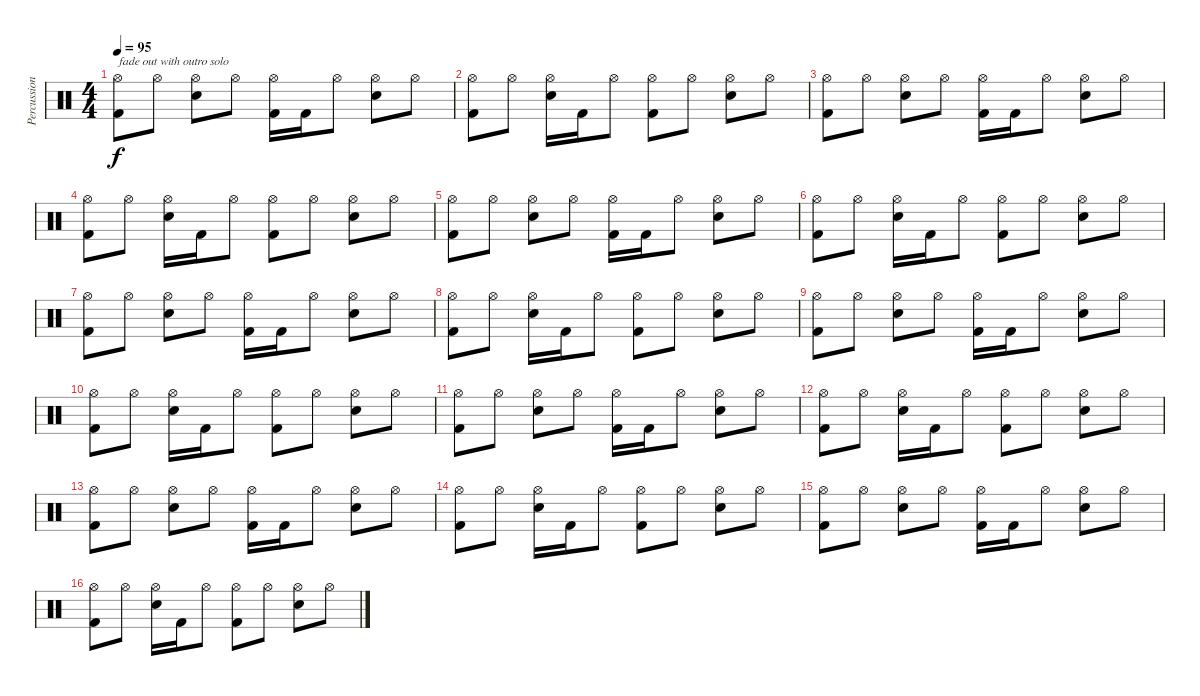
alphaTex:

\track ("Percussion" "Percussion") {instrument percussion}
\staff {score}
\articulation defaults
\ts (4 4)
\tempo 95
\clef neutral
\ks c
("Hi-Hat (open)" "Kick (hit) 2").8{txt "fade out with outro solo" dy f volume 12} "Hi-Hat (open)".8 ("Hi-Hat (open)" "Snare (hit) 2").8 "Hi-Hat (open)".8 ("Hi-Hat (open)" "Kick (hit) 2").16 "Kick (hit) 2".16 "Hi-Hat (open)".8 ("Hi-Hat (open)" "Snare (hit) 2").8 "Hi-Hat (open)".8 |
("Hi-Hat (open)" "Kick (hit) 2").8 "Hi-Hat (open)".8 ("Hi-Hat (open)" "Snare (hit) 2").16 "Kick (hit) 2".16 "Hi-Hat (open)".8 ("Hi-Hat (open)" "Kick (hit) 2").8 "Hi-Hat (open)".8 ("Hi-Hat (open)" "Snare (hit) 2").8 "Hi-Hat (open)".8 |
("Hi-Hat (open)" "Kick (hit) 2").8{volume 9} "Hi-Hat (open)".8 ("Hi-Hat (open)" "Snare (hit) 2").8 "Hi-Hat (open)".8 ("Hi-Hat (open)" "Kick (hit) 2").16 "Kick (hit) 2".16 "Hi-Hat (open)".8 ("Hi-Hat (open)" "Snare (hit) 2").8 "Hi-Hat (open)".8 |
("Hi-Hat (open)" "Kick (hit) 2").8 "Hi-Hat (open)".8 ("Hi-Hat (open)" "Snare (hit) 2").16 "Kick (hit) 2".16 "Hi-Hat (open)".8 ("Hi-Hat (open)" "Kick (hit) 2").8 "Hi-Hat (open)".8 ("Hi-Hat (open)" "Snare (hit) 2").8 "Hi-Hat (open)".8 |
("Hi-Hat (open)" "Kick (hit) 2").8{volume 7} "Hi-Hat (open)".8 ("Hi-Hat (open)" "Snare (hit) 2").8 "Hi-Hat (open)".8 ("Hi-Hat (open)" "Kick (hit) 2").16 "Kick (hit) 2".16 "Hi-Hat (open)".8 ("Hi-Hat (open)" "Snare (hit) 2").8 "Hi-Hat (open)".8 |
("Hi-Hat (open)" "Kick (hit) 2").8 "Hi-Hat (open)".8 ("Hi-Hat (open)" "Snare (hit) 2").16 "Kick (hit) 2".16 "Hi-Hat (open)".8 ("Hi-Hat (open)" "Kick (hit) 2").8 "Hi-Hat (open)".8 ("Hi-Hat (open)" "Snare (hit) 2").8 "Hi-Hat (open)".8 |
("Hi-Hat (open)" "Kick (hit) 2").8{volume 7} "Hi-Hat (open)".8 ("Hi-Hat (open)" "Snare (hit) 2").8 "Hi-Hat (open)".8 ("Hi-Hat (open)" "Kick (hit) 2").16 "Kick (hit) 2".16 "Hi-Hat (open)".8 ("Hi-Hat (open)" "Snare (hit) 2").8 "Hi-Hat (open)".8 |
("Hi-Hat (open)" "Kick (hit) 2").8 "Hi-Hat (open)".8 ("Hi-Hat (open)" "Snare (hit) 2").16 "Kick (hit) 2".16 "Hi-Hat (open)".8 ("Hi-Hat (open)" "Kick (hit) 2").8 "Hi-Hat (open)".8 ("Hi-Hat (open)" "Snare (hit) 2").8 "Hi-Hat (open)".8 |
("Hi-Hat (open)" "Kick (hit) 2").8{volume 5} "Hi-Hat (open)".8 ("Hi-Hat (open)" "Snare (hit) 2").8 "Hi-Hat (open)".8 ("Hi-Hat (open)" "Kick (hit) 2").16 "Kick (hit) 2".16 "Hi-Hat (open)".8 ("Hi-Hat (open)" "Snare (hit) 2").8 "Hi-Hat (open)".8 |
("Hi-Hat (open)" "Kick (hit) 2").8 "Hi-Hat (open)".8 ("Hi-Hat (open)" "Snare (hit) 2").16 "Kick (hit) 2".16 "Hi-Hat (open)".8 ("Hi-Hat (open)" "Kick (hit) 2").8 "Hi-Hat (open)".8 ("Hi-Hat (open)" "Snare (hit) 2").8 "Hi-Hat (open)".8 |
("Hi-Hat (open)" "Kick (hit) 2").8{volume 3} "Hi-Hat (open)".8 ("Hi-Hat (open)" "Snare (hit) 2").8 "Hi-Hat (open)".8 ("Hi-Hat (open)" "Kick (hit) 2").16 "Kick (hit) 2".16 "Hi-Hat (open)".8 ("Hi-Hat (open)" "Snare (hit) 2").8 "Hi-Hat (open)".8 |
("Hi-Hat (open)" "Kick (hit) 2").8 "Hi-Hat (open)".8 ("Hi-Hat (open)" "Snare (hit) 2").16 "Kick (hit) 2".16 "Hi-Hat (open)".8 ("Hi-Hat (open)" "Kick (hit) 2").8 "Hi-Hat (open)".8 ("Hi-Hat (open)" "Snare (hit) 2").8 "Hi-Hat (open)".8 |
("Hi-Hat (open)" "Kick (hit) 2").8{volume 1} "Hi-Hat (open)".8 ("Hi-Hat (open)" "Snare (hit) 2").8 "Hi-Hat (open)".8 ("Hi-Hat (open)" "Kick (hit) 2").16 "Kick (hit) 2".16 "Hi-Hat (open)".8 ("Hi-Hat (open)" "Snare (hit) 2").8 "Hi-Hat (open)".8 |
("Hi-Hat (open)" "Kick (hit) 2").8 "Hi-Hat (open)".8 ("Hi-Hat (open)" "Snare (hit) 2").16 "Kick (hit) 2".16 "Hi-Hat (open)".8 ("Hi-Hat (open)" "Kick (hit) 2").8 "Hi-Hat (open)".8 ("Hi-Hat (open)" "Snare (hit) 2").8 "Hi-Hat (open)".8 |
("Hi-Hat (open)" "Kick (hit) 2").8{volume 0} "Hi-Hat (open)".8 ("Hi-Hat (open)" "Snare (hit) 2").8 "Hi-Hat (open)".8 ("Hi-Hat (open)" "Kick (hit) 2").16 "Kick (hit) 2".16 "Hi-Hat (open)".8 ("Hi-Hat (open)" "Snare (hit) 2").8 "Hi-Hat (open)".8 |
("Hi-Hat (open)" "Kick (hit) 2").8 "Hi-Hat (open)".8 ("Hi-Hat (open)" "Snare (hit) 2").16 "Kick (hit) 2".16 "Hi-Hat (open)".8 ("Hi-Hat (open)" "Kick (hit) 2").8 "Hi-Hat (open)".8 ("Hi-Hat (open)" "Snare (hit) 2").8 "Hi-Hat (open)".8
